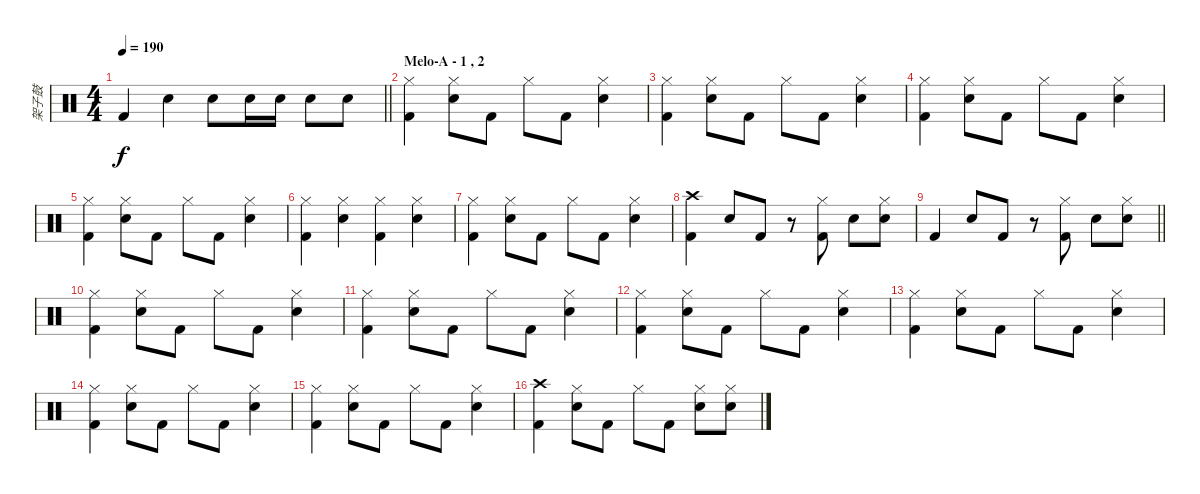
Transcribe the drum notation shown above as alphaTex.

\track ("架子鼓" "架子鼓") {instrument percussion}
\staff {score}
\articulation defaults
\ts (4 4)
\tempo 190
\clef neutral
\barLineRight lightlight
\ks c "Kick (hit) 2".4{dy f} "Electric Snare (hit)".4 "Electric Snare (hit)".8 "Electric Snare (hit)".16 "Electric Snare (hit)".16 "Electric Snare (hit)".8 "Electric Snare (hit)".8
|
\section ("" "Melo-A - 1 , 2")
("Hi-Hat (closed)" "Kick (hit) 2").4 ("Hi-Hat (closed)" "Electric Snare (hit)").8 "Kick (hit) 2".8 "Hi-Hat (closed)".8 "Kick (hit) 2".8 ("Hi-Hat (closed)" "Electric Snare (hit)").4 |
("Hi-Hat (closed)" "Kick (hit) 2").4 ("Hi-Hat (closed)" "Electric Snare (hit)").8 "Kick (hit) 2".8 "Hi-Hat (closed)".8 "Kick (hit) 2".8 ("Hi-Hat (closed)" "Electric Snare (hit)").4 |
("Hi-Hat (closed)" "Kick (hit) 2").4 ("Hi-Hat (closed)" "Electric Snare (hit)").8 "Kick (hit) 2".8 "Hi-Hat (closed)".8 "Kick (hit) 2".8 ("Hi-Hat (closed)" "Electric Snare (hit)").4 |
("Hi-Hat (closed)" "Kick (hit) 2").4 ("Hi-Hat (closed)" "Electric Snare (hit)").8 "Kick (hit) 2".8 "Hi-Hat (closed)".8 "Kick (hit) 2".8 ("Hi-Hat (closed)" "Electric Snare (hit)").4 |
("Hi-Hat (closed)" "Kick (hit) 2").4 ("Hi-Hat (closed)" "Electric Snare (hit)").4 ("Hi-Hat (closed)" "Kick (hit) 2").4 ("Hi-Hat (closed)" "Electric Snare (hit)").4 |
("Hi-Hat (closed)" "Kick (hit) 2").4 ("Hi-Hat (closed)" "Electric Snare (hit)").8 "Kick (hit) 2".8 "Hi-Hat (closed)".8 "Kick (hit) 2".8 ("Hi-Hat (closed)" "Electric Snare (hit)").4 |
("Crash high (hit)" "Kick (hit) 2").4 "Electric Snare (hit)".8 "Kick (hit) 2".8 r.8 ("Hi-Hat (closed)" "Kick (hit) 2").8 "Electric Snare (hit)".8 ("Hi-Hat (closed)" "Electric Snare (hit)").8 |
\barLineRight lightlight "Kick (hit) 2".4 "Electric Snare (hit)".8 "Kick (hit) 2".8
r.8 ("Hi-Hat (closed)" "Kick (hit) 2").8 "Electric Snare (hit)".8 ("Hi-Hat (closed)" "Electric Snare (hit)").8 |
("Hi-Hat (closed)" "Kick (hit) 2").4 ("Hi-Hat (closed)" "Electric Snare (hit)").8 "Kick (hit) 2".8 "Hi-Hat (closed)".8 "Kick (hit) 2".8 ("Hi-Hat (closed)" "Electric Snare (hit)").4 |
("Hi-Hat (closed)" "Kick (hit) 2").4 ("Hi-Hat (closed)" "Electric Snare (hit)").8 "Kick (hit) 2".8 "Hi-Hat (closed)".8 "Kick (hit) 2".8 ("Hi-Hat (closed)" "Electric Snare (hit)").4 |
("Hi-Hat (closed)" "Kick (hit) 2").4 ("Hi-Hat (closed)" "Electric Snare (hit)").8 "Kick (hit) 2".8 "Hi-Hat (closed)".8 "Kick (hit) 2".8 ("Hi-Hat (closed)" "Electric Snare (hit)").4 |
("Hi-Hat (closed)" "Kick (hit) 2").4 ("Hi-Hat (closed)" "Electric Snare (hit)").8 "Kick (hit) 2".8 "Hi-Hat (closed)".8 "Kick (hit) 2".8 ("Hi-Hat (closed)" "Electric Snare (hit)").4 |
("Hi-Hat (closed)" "Kick (hit) 2").4 ("Hi-Hat (closed)" "Electric Snare (hit)").8 "Kick (hit) 2".8 "Hi-Hat (closed)".8 "Kick (hit) 2".8 ("Hi-Hat (closed)" "Electric Snare (hit)").4 |
("Hi-Hat (closed)" "Kick (hit) 2").4 ("Hi-Hat (closed)" "Electric Snare (hit)").8 "Kick (hit) 2".8 "Hi-Hat (closed)".8 "Kick (hit) 2".8 ("Hi-Hat (closed)" "Electric Snare (hit)").4 |
("Crash high (hit)" "Kick (hit) 2").4 ("Hi-Hat (closed)" "Electric Snare (hit)").8 "Kick (hit) 2".8 "Hi-Hat (closed)".8 "Kick (hit) 2".8 ("Hi-Hat (closed)" "Electric Snare (hit)").8 ("Hi-Hat (closed)" "Electric Snare (hit)").8
